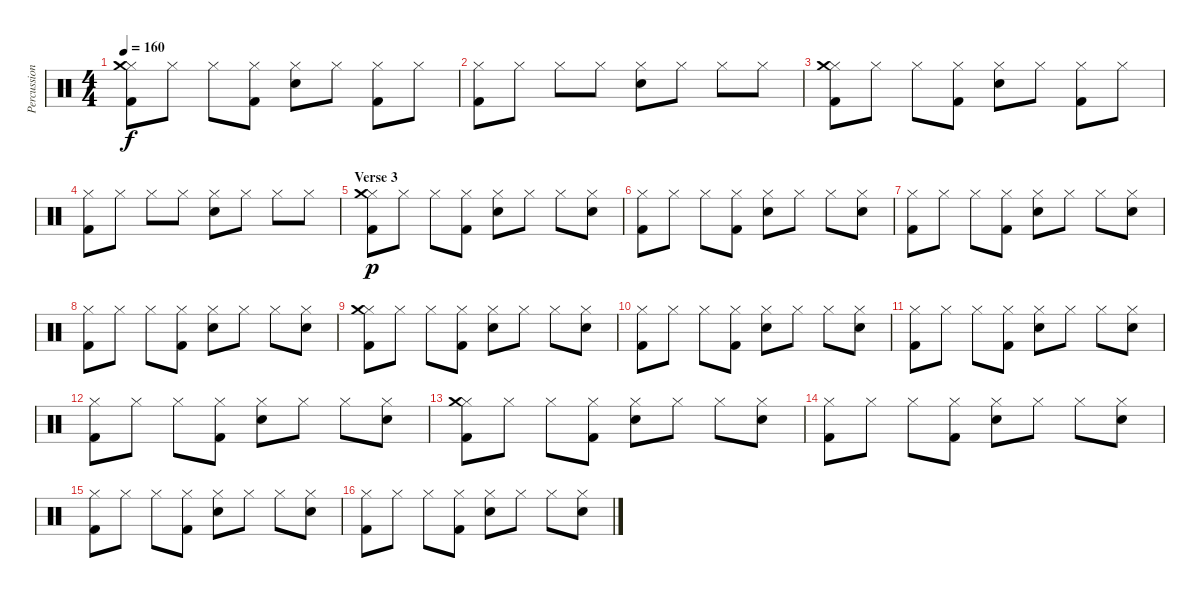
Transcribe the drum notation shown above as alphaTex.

\track ("Percussions" "Percussion") {instrument percussion}
\staff {score}
\articulation defaults
\ts (4 4)
\tempo 160
\clef neutral
\ks c
("Hi-Hat (closed)" "Kick (hit) 2" "Crash medium (hit)").8{dy f} "Hi-Hat (closed)".8 "Hi-Hat (closed)".8 ("Hi-Hat (closed)" "Kick (hit) 2").8 ("Hi-Hat (closed)" "Electric Snare (hit)").8 "Hi-Hat (closed)".8 ("Hi-Hat (closed)" "Kick (hit) 2").8 "Hi-Hat (closed)".8 |
("Hi-Hat (closed)" "Kick (hit) 2").8 "Hi-Hat (closed)".8 "Hi-Hat (closed)".8 "Hi-Hat (closed)".8 ("Hi-Hat (closed)" "Electric Snare (hit)").8 "Hi-Hat (closed)".8 "Hi-Hat (closed)".8 "Hi-Hat (closed)".8 |
("Hi-Hat (closed)" "Kick (hit) 2" "Crash medium (hit)").8 "Hi-Hat (closed)".8 "Hi-Hat (closed)".8 ("Hi-Hat (closed)" "Kick (hit) 2").8 ("Hi-Hat (closed)" "Electric Snare (hit)").8 "Hi-Hat (closed)".8 ("Hi-Hat (closed)" "Kick (hit) 2").8 "Hi-Hat (closed)".8 |
("Hi-Hat (closed)" "Kick (hit) 2").8 "Hi-Hat (closed)".8 "Hi-Hat (closed)".8 "Hi-Hat (closed)".8 ("Hi-Hat (closed)" "Electric Snare (hit)").8 "Hi-Hat (closed)".8 "Hi-Hat (closed)".8 "Hi-Hat (closed)".8 |
\section ("" "Verse 3")
("Hi-Hat (closed)" "Kick (hit) 2" "Crash medium (hit)").8{dy p} "Hi-Hat (closed)".8 "Hi-Hat (closed)".8 ("Hi-Hat (closed)" "Kick (hit) 2").8 ("Hi-Hat (closed)" "Electric Snare (hit)").8 "Hi-Hat (closed)".8 "Hi-Hat (closed)".8 ("Hi-Hat (closed)" "Electric Snare (hit)").8 |
("Hi-Hat (closed)" "Kick (hit) 2").8 "Hi-Hat (closed)".8 "Hi-Hat (closed)".8 ("Hi-Hat (closed)" "Kick (hit) 2").8 ("Hi-Hat (closed)" "Electric Snare (hit)").8 "Hi-Hat (closed)".8 "Hi-Hat (closed)".8 ("Hi-Hat (closed)" "Electric Snare (hit)").8 |
("Hi-Hat (closed)" "Kick (hit) 2").8 "Hi-Hat (closed)".8 "Hi-Hat (closed)".8 ("Hi-Hat (closed)" "Kick (hit) 2").8 ("Hi-Hat (closed)" "Electric Snare (hit)").8 "Hi-Hat (closed)".8 "Hi-Hat (closed)".8 ("Hi-Hat (closed)" "Electric Snare (hit)").8 |
("Hi-Hat (closed)" "Kick (hit) 2").8 "Hi-Hat (closed)".8 "Hi-Hat (closed)".8 ("Hi-Hat (closed)" "Kick (hit) 2").8 ("Hi-Hat (closed)" "Electric Snare (hit)").8 "Hi-Hat (closed)".8 "Hi-Hat (closed)".8 ("Hi-Hat (closed)" "Electric Snare (hit)").8 |
("Hi-Hat (closed)" "Kick (hit) 2" "Crash medium (hit)").8 "Hi-Hat (closed)".8 "Hi-Hat (closed)".8 ("Hi-Hat (closed)" "Kick (hit) 2").8 ("Hi-Hat (closed)" "Electric Snare (hit)").8 "Hi-Hat (closed)".8 "Hi-Hat (closed)".8 ("Hi-Hat (closed)" "Electric Snare (hit)").8 |
("Hi-Hat (closed)" "Kick (hit) 2").8 "Hi-Hat (closed)".8 "Hi-Hat (closed)".8 ("Hi-Hat (closed)" "Kick (hit) 2").8 ("Hi-Hat (closed)" "Electric Snare (hit)").8 "Hi-Hat (closed)".8 "Hi-Hat (closed)".8 ("Hi-Hat (closed)" "Electric Snare (hit)").8 |
("Hi-Hat (closed)" "Kick (hit) 2").8 "Hi-Hat (closed)".8 "Hi-Hat (closed)".8 ("Hi-Hat (closed)" "Kick (hit) 2").8 ("Hi-Hat (closed)" "Electric Snare (hit)").8 "Hi-Hat (closed)".8 "Hi-Hat (closed)".8 ("Hi-Hat (closed)" "Electric Snare (hit)").8 |
("Hi-Hat (closed)" "Kick (hit) 2").8 "Hi-Hat (closed)".8 "Hi-Hat (closed)".8 ("Hi-Hat (closed)" "Kick (hit) 2").8 ("Hi-Hat (closed)" "Electric Snare (hit)").8 "Hi-Hat (closed)".8 "Hi-Hat (closed)".8 ("Hi-Hat (closed)" "Electric Snare (hit)").8 |
("Hi-Hat (closed)" "Kick (hit) 2" "Crash medium (hit)").8 "Hi-Hat (closed)".8 "Hi-Hat (closed)".8 ("Hi-Hat (closed)" "Kick (hit) 2").8 ("Hi-Hat (closed)" "Electric Snare (hit)").8 "Hi-Hat (closed)".8 "Hi-Hat (closed)".8 ("Hi-Hat (closed)" "Electric Snare (hit)").8 |
("Hi-Hat (closed)" "Kick (hit) 2").8 "Hi-Hat (closed)".8 "Hi-Hat (closed)".8 ("Hi-Hat (closed)" "Kick (hit) 2").8 ("Hi-Hat (closed)" "Electric Snare (hit)").8 "Hi-Hat (closed)".8 "Hi-Hat (closed)".8 ("Hi-Hat (closed)" "Electric Snare (hit)").8 |
("Hi-Hat (closed)" "Kick (hit) 2").8 "Hi-Hat (closed)".8 "Hi-Hat (closed)".8 ("Hi-Hat (closed)" "Kick (hit) 2").8 ("Hi-Hat (closed)" "Electric Snare (hit)").8 "Hi-Hat (closed)".8 "Hi-Hat (closed)".8 ("Hi-Hat (closed)" "Electric Snare (hit)").8 |
("Hi-Hat (closed)" "Kick (hit) 2").8 "Hi-Hat (closed)".8 "Hi-Hat (closed)".8 ("Hi-Hat (closed)" "Kick (hit) 2").8 ("Hi-Hat (closed)" "Electric Snare (hit)").8 "Hi-Hat (closed)".8 "Hi-Hat (closed)".8 ("Hi-Hat (closed)" "Electric Snare (hit)").8
